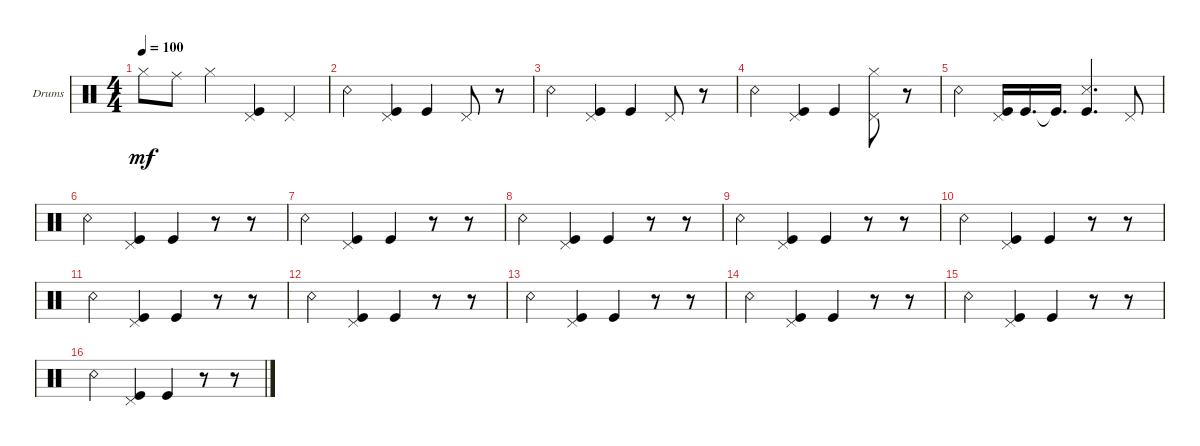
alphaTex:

\defaultSystemsLayout 4
\bracketExtendMode groupsimilarinstruments
\firstSystemTrackNameOrientation horizontal
\otherSystemsTrackNameOrientation horizontal
\track ("Drumkit" "Drums") {instrument percussion}
\staff {score}
\articulation defaults
\ts (4 4)
\tempo 100
\clef neutral
\ks c "Hi-Hat (closed)".8{dy mf} "Ride (middle)".8 "Hi-Hat (closed)".4
("Kick (hit)" "Pedal Hi-Hat (hit)").4 "Pedal Hi-Hat (hit)".4 |
"Snare (rim shot)".4 ("Kick (hit)" "Pedal Hi-Hat (hit)").4 "Kick (hit)".4 "Pedal Hi-Hat (hit)".8 r.8 |
"Snare (rim shot)".4 ("Kick (hit)" "Pedal Hi-Hat (hit)").4 "Kick (hit)".4 "Pedal Hi-Hat (hit)".8 r.8 |
"Snare (rim shot)".4 ("Kick (hit)" "Pedal Hi-Hat (hit)").4 "Kick (hit)".4 ("Hi-Hat (closed)" "Pedal Hi-Hat (hit)").8 r.8 |
"Snare (rim shot)".4 ("Kick (hit)" "Pedal Hi-Hat (hit)").16 "Kick (hit)".16{d} "Kick (hit)"{t}.16{d} ("Kick (hit)" "Snare (side stick) 3").4{d} "Pedal Hi-Hat (hit)".8 |
"Snare (rim shot)".4 ("Kick (hit)" "Pedal Hi-Hat (hit)").4 "Kick (hit)".4 r.8 r.8 |
"Snare (rim shot)".4 ("Kick (hit)" "Pedal Hi-Hat (hit)").4 "Kick (hit)".4 r.8 r.8 |
"Snare (rim shot)".4 ("Kick (hit)" "Pedal Hi-Hat (hit)").4 "Kick (hit)".4 r.8 r.8 |
"Snare (rim shot)".4 ("Kick (hit)" "Pedal Hi-Hat (hit)").4 "Kick (hit)".4 r.8 r.8 |
"Snare (rim shot)".4 ("Kick (hit)" "Pedal Hi-Hat (hit)").4 "Kick (hit)".4 r.8 r.8 |
"Snare (rim shot)".4 ("Kick (hit)" "Pedal Hi-Hat (hit)").4 "Kick (hit)".4 r.8 r.8 |
"Snare (rim shot)".4 ("Kick (hit)" "Pedal Hi-Hat (hit)").4 "Kick (hit)".4 r.8 r.8 |
"Snare (rim shot)".4 ("Kick (hit)" "Pedal Hi-Hat (hit)").4 "Kick (hit)".4 r.8 r.8 |
"Snare (rim shot)".4 ("Kick (hit)" "Pedal Hi-Hat (hit)").4 "Kick (hit)".4 r.8 r.8 |
"Snare (rim shot)".4 ("Kick (hit)" "Pedal Hi-Hat (hit)").4 "Kick (hit)".4 r.8 r.8 |
"Snare (rim shot)".4 ("Kick (hit)" "Pedal Hi-Hat (hit)").4 "Kick (hit)".4 r.8 r.8
